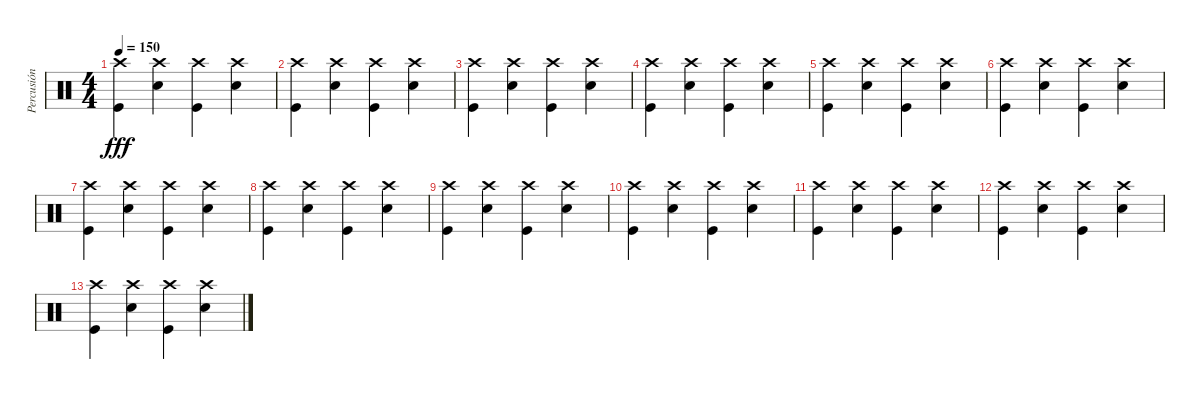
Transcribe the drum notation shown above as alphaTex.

\track ("Percusión" "Percusión") {instrument percussion bank 106}
\staff {score}
\articulation defaults
\ts (4 4)
\tempo 150
\clef neutral
\ks c
("Crash high (hit)" "Kick (hit)").4{dy fff} ("Crash high (hit)" "Electric Snare (hit)").4 ("Crash high (hit)" "Kick (hit)").4 ("Crash high (hit)" "Electric Snare (hit)").4 |
("Crash high (hit)" "Kick (hit)").4 ("Crash high (hit)" "Electric Snare (hit)").4 ("Crash high (hit)" "Kick (hit)").4 ("Crash high (hit)" "Electric Snare (hit)").4 |
("Crash high (hit)" "Kick (hit)").4 ("Crash high (hit)" "Electric Snare (hit)").4 ("Crash high (hit)" "Kick (hit)").4 ("Crash high (hit)" "Electric Snare (hit)").4 |
("Crash high (hit)" "Kick (hit)").4 ("Crash high (hit)" "Electric Snare (hit)").4 ("Crash high (hit)" "Kick (hit)").4 ("Crash high (hit)" "Electric Snare (hit)").4 |
("Crash high (hit)" "Kick (hit)").4 ("Crash high (hit)" "Electric Snare (hit)").4 ("Crash high (hit)" "Kick (hit)").4 ("Crash high (hit)" "Electric Snare (hit)").4 |
("Crash high (hit)" "Kick (hit)").4 ("Crash high (hit)" "Electric Snare (hit)").4 ("Crash high (hit)" "Kick (hit)").4 ("Crash high (hit)" "Electric Snare (hit)").4 |
("Crash high (hit)" "Kick (hit)").4 ("Crash high (hit)" "Electric Snare (hit)").4 ("Crash high (hit)" "Kick (hit)").4 ("Crash high (hit)" "Electric Snare (hit)").4 |
("Crash high (hit)" "Kick (hit)").4 ("Crash high (hit)" "Electric Snare (hit)").4 ("Crash high (hit)" "Kick (hit)").4 ("Crash high (hit)" "Electric Snare (hit)").4 |
("Crash high (hit)" "Kick (hit)").4 ("Crash high (hit)" "Electric Snare (hit)").4 ("Crash high (hit)" "Kick (hit)").4 ("Crash high (hit)" "Electric Snare (hit)").4 |
("Crash high (hit)" "Kick (hit)").4 ("Crash high (hit)" "Electric Snare (hit)").4 ("Crash high (hit)" "Kick (hit)").4 ("Crash high (hit)" "Electric Snare (hit)").4 |
("Crash high (hit)" "Kick (hit)").4 ("Crash high (hit)" "Electric Snare (hit)").4 ("Crash high (hit)" "Kick (hit)").4 ("Crash high (hit)" "Electric Snare (hit)").4 |
("Crash high (hit)" "Kick (hit)").4 ("Crash high (hit)" "Electric Snare (hit)").4 ("Crash high (hit)" "Kick (hit)").4 ("Crash high (hit)" "Electric Snare (hit)").4 |
("Crash high (hit)" "Kick (hit)").4 ("Crash high (hit)" "Electric Snare (hit)").4 ("Crash high (hit)" "Kick (hit)").4 ("Crash high (hit)" "Electric Snare (hit)").4
